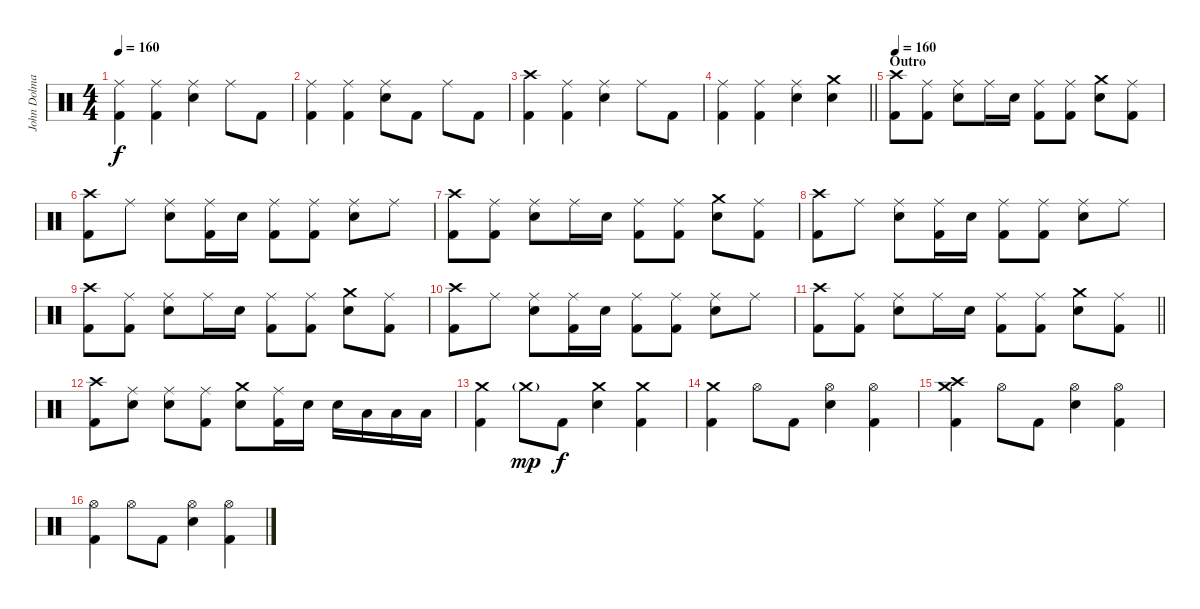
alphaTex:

\track ("John Dolmayan(Drums)" "John Dolma") {instrument percussion}
\staff {score}
\articulation defaults
\ts (4 4)
\tempo 160
\clef neutral
\ks c
("Ride (middle)" "Kick (hit) 2").4{dy f} ("Ride (middle)" "Kick (hit) 2").4 ("Ride (middle)" "Snare (hit) 2").4 "Ride (middle)".8 "Kick (hit) 2".8 |
("Ride (middle)" "Kick (hit) 2").4 ("Ride (middle)" "Kick (hit) 2").4 ("Ride (middle)" "Snare (hit) 2").8 "Kick (hit) 2".8 "Ride (middle)".8 "Kick (hit) 2".8 |
("Crash high (hit)" "Kick (hit) 2").4 ("Ride (middle)" "Kick (hit) 2").4 ("Ride (middle)" "Snare (hit) 2").4 "Ride (middle)".8 "Kick (hit) 2".8 |
\barLineRight lightlight
("Ride (middle)" "Kick (hit) 2").4 ("Ride (middle)" "Kick (hit) 2").4 ("Ride (middle)" "Snare (hit) 2").4 ("Crash medium (hit)" "Snare (hit) 2").4 |
\section ("" "Outro")
\tempo 160
("Crash high (hit)" "Kick (hit) 2").8 ("Ride (middle)" "Kick (hit) 2").8 ("Ride (middle)" "Snare (hit) 2").8 "Ride (middle)".16 "Snare (hit) 2".16 ("Ride (middle)" "Kick (hit) 2").8 ("Ride (middle)" "Kick (hit) 2").8 ("Crash medium (hit)" "Snare (hit) 2").8 ("Ride (middle)" "Kick (hit) 2").8 |
("Crash high (hit)" "Kick (hit) 2").8 "Ride (middle)".8 ("Ride (middle)" "Snare (hit) 2").8 ("Ride (middle)" "Kick (hit) 2").16 "Snare (hit) 2".16 ("Ride (middle)" "Kick (hit) 2").8 ("Ride (middle)" "Kick (hit) 2").8 ("Ride (middle)" "Snare (hit) 2").8 "Ride (middle)".8 |
("Crash high (hit)" "Kick (hit) 2").8 ("Ride (middle)" "Kick (hit) 2").8 ("Ride (middle)" "Snare (hit) 2").8 "Ride (middle)".16 "Snare (hit) 2".16 ("Ride (middle)" "Kick (hit) 2").8 ("Ride (middle)" "Kick (hit) 2").8 ("Crash medium (hit)" "Snare (hit) 2").8 ("Ride (middle)" "Kick (hit) 2").8 |
("Crash high (hit)" "Kick (hit) 2").8 "Ride (middle)".8 ("Ride (middle)" "Snare (hit) 2").8 ("Ride (middle)" "Kick (hit) 2").16 "Snare (hit) 2".16 ("Ride (middle)" "Kick (hit) 2").8 ("Ride (middle)" "Kick (hit) 2").8 ("Ride (middle)" "Snare (hit) 2").8 "Ride (middle)".8 |
("Crash high (hit)" "Kick (hit) 2").8 ("Ride (middle)" "Kick (hit) 2").8 ("Ride (middle)" "Snare (hit) 2").8 "Ride (middle)".16 "Snare (hit) 2".16 ("Ride (middle)" "Kick (hit) 2").8 ("Ride (middle)" "Kick (hit) 2").8 ("Crash medium (hit)" "Snare (hit) 2").8 ("Ride (middle)" "Kick (hit) 2").8 |
("Crash high (hit)" "Kick (hit) 2").8 "Ride (middle)".8 ("Ride (middle)" "Snare (hit) 2").8 ("Ride (middle)" "Kick (hit) 2").16 "Snare (hit) 2".16 ("Ride (middle)" "Kick (hit) 2").8 ("Ride (middle)" "Kick (hit) 2").8 ("Ride (middle)" "Snare (hit) 2").8 "Ride (middle)".8 |
\barLineRight lightlight
("Crash high (hit)" "Kick (hit) 2").8 ("Ride (middle)" "Kick (hit) 2").8 ("Ride (middle)" "Snare (hit) 2").8 "Ride (middle)".16 "Snare (hit) 2".16 ("Ride (middle)" "Kick (hit) 2").8 ("Ride (middle)" "Kick (hit) 2").8 ("Crash medium (hit)" "Snare (hit) 2").8 ("Ride (middle)" "Kick (hit) 2").8 |
("Crash high (hit)" "Kick (hit) 2").8 ("Ride (middle)" "Snare (hit) 2").8 ("Ride (middle)" "Snare (hit) 2").8 ("Ride (middle)" "Kick (hit) 2").8 ("Crash medium (hit)" "Snare (hit) 2").8 ("Ride (middle)" "Kick (hit) 2").16 "Snare (hit) 2".16 "Snare (hit) 2".16 "Low Tom (hit)".16 "Low Tom (hit)".16 "Low Tom (hit)".16 |
("Crash medium (hit)" "Kick (hit) 2").4 "Crash medium (hit)"{g}.8{dy mp} "Kick (hit) 2".8{dy f} ("Crash medium (hit)" "Snare (hit) 2").4 ("Crash medium (hit)" "Kick (hit) 2").4 |
("Crash medium (hit)" "Kick (hit) 2").4 "Hi-Hat (open)".8 "Kick (hit) 2".8 ("Hi-Hat (open)" "Snare (hit) 2").4 ("Hi-Hat (open)" "Kick (hit) 2").4 |
("Crash high (hit)" "Crash medium (hit)" "Kick (hit) 2").4 "Hi-Hat (open)".8 "Kick (hit) 2".8 ("Hi-Hat (open)" "Snare (hit) 2").4 ("Hi-Hat (open)" "Kick (hit) 2").4 |
("Hi-Hat (open)" "Kick (hit) 2").4 "Hi-Hat (open)".8 "Kick (hit) 2".8 ("Hi-Hat (open)" "Snare (hit) 2").4 ("Hi-Hat (open)" "Kick (hit) 2").4
